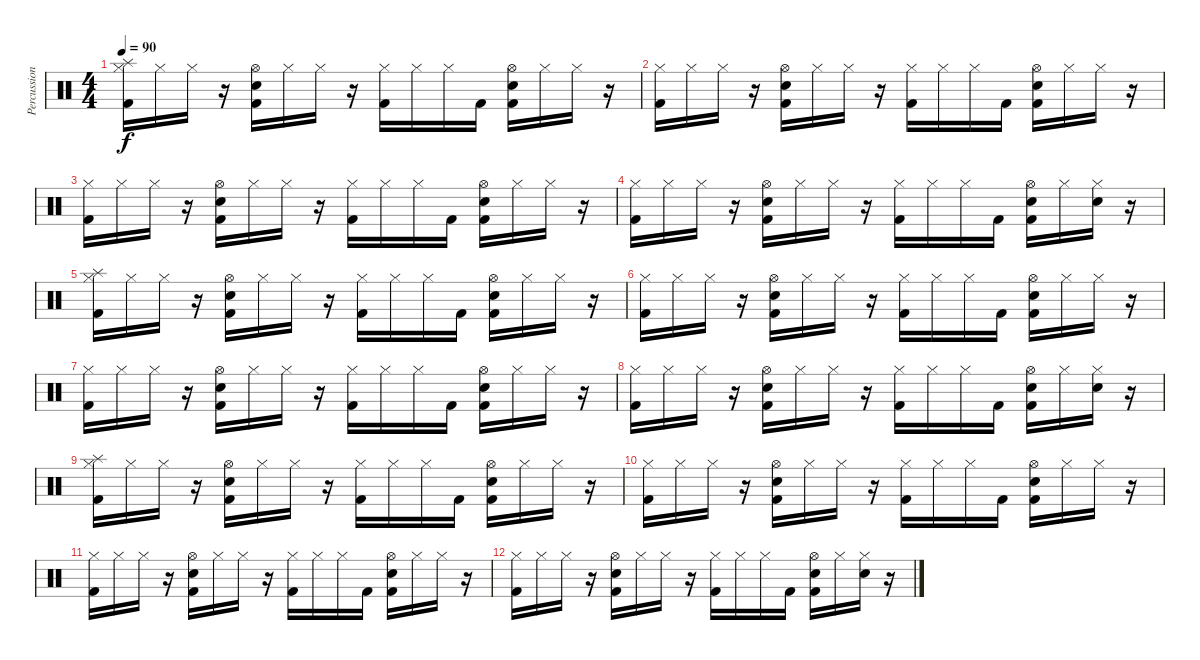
\track ("Percussion" "Percussion") {instrument percussion}
\staff {score}
\articulation defaults
\ts (4 4)
\tempo 90
\clef neutral
\ks c
("Splash (hit)" "Hi-Hat (closed)" "Kick (hit) 2").16{dy f} "Hi-Hat (closed)".16 "Hi-Hat (closed)".16 r.16 ("Kick (hit) 2" "Hi-Hat (open)" "Electric Snare (hit)").16 "Hi-Hat (closed)".16 "Hi-Hat (closed)".16 r.16 ("Hi-Hat (closed)" "Kick (hit) 2").16 "Hi-Hat (closed)".16 "Hi-Hat (closed)".16 "Kick (hit) 2".16 ("Kick (hit) 2" "Hi-Hat (open)" "Electric Snare (hit)").16 "Hi-Hat (closed)".16 "Hi-Hat (closed)".16 r.16 |
("Hi-Hat (closed)" "Kick (hit) 2").16 "Hi-Hat (closed)".16 "Hi-Hat (closed)".16 r.16 ("Kick (hit) 2" "Hi-Hat (open)" "Electric Snare (hit)").16 "Hi-Hat (closed)".16 "Hi-Hat (closed)".16 r.16 ("Hi-Hat (closed)" "Kick (hit) 2").16 "Hi-Hat (closed)".16 "Hi-Hat (closed)".16 "Kick (hit) 2".16 ("Kick (hit) 2" "Hi-Hat (open)" "Electric Snare (hit)").16 "Hi-Hat (closed)".16 "Hi-Hat (closed)".16 r.16 |
("Hi-Hat (closed)" "Kick (hit) 2").16 "Hi-Hat (closed)".16 "Hi-Hat (closed)".16 r.16 ("Kick (hit) 2" "Hi-Hat (open)" "Electric Snare (hit)").16 "Hi-Hat (closed)".16 "Hi-Hat (closed)".16 r.16 ("Hi-Hat (closed)" "Kick (hit) 2").16 "Hi-Hat (closed)".16 "Hi-Hat (closed)".16 "Kick (hit) 2".16 ("Kick (hit) 2" "Hi-Hat (open)" "Electric Snare (hit)").16 "Hi-Hat (closed)".16 "Hi-Hat (closed)".16 r.16 |
("Hi-Hat (closed)" "Kick (hit) 2").16 "Hi-Hat (closed)".16 "Hi-Hat (closed)".16 r.16 ("Kick (hit) 2" "Hi-Hat (open)" "Electric Snare (hit)").16 "Hi-Hat (closed)".16 "Hi-Hat (closed)".16 r.16 ("Hi-Hat (closed)" "Kick (hit) 2").16 "Hi-Hat (closed)".16 "Hi-Hat (closed)".16 "Kick (hit) 2".16 ("Kick (hit) 2" "Hi-Hat (open)" "Electric Snare (hit)").16 "Hi-Hat (closed)".16 ("Hi-Hat (closed)" "Electric Snare (hit)").16 r.16 |
("Splash (hit)" "Hi-Hat (closed)" "Kick (hit) 2").16 "Hi-Hat (closed)".16 "Hi-Hat (closed)".16 r.16 ("Kick (hit) 2" "Hi-Hat (open)" "Electric Snare (hit)").16 "Hi-Hat (closed)".16 "Hi-Hat (closed)".16 r.16 ("Hi-Hat (closed)" "Kick (hit) 2").16 "Hi-Hat (closed)".16 "Hi-Hat (closed)".16 "Kick (hit) 2".16 ("Kick (hit) 2" "Hi-Hat (open)" "Electric Snare (hit)").16 "Hi-Hat (closed)".16 "Hi-Hat (closed)".16 r.16 |
("Hi-Hat (closed)" "Kick (hit) 2").16 "Hi-Hat (closed)".16 "Hi-Hat (closed)".16 r.16 ("Kick (hit) 2" "Hi-Hat (open)" "Electric Snare (hit)").16 "Hi-Hat (closed)".16 "Hi-Hat (closed)".16 r.16 ("Hi-Hat (closed)" "Kick (hit) 2").16 "Hi-Hat (closed)".16 "Hi-Hat (closed)".16 "Kick (hit) 2".16 ("Kick (hit) 2" "Hi-Hat (open)" "Electric Snare (hit)").16 "Hi-Hat (closed)".16 "Hi-Hat (closed)".16 r.16 |
("Hi-Hat (closed)" "Kick (hit) 2").16 "Hi-Hat (closed)".16 "Hi-Hat (closed)".16 r.16 ("Kick (hit) 2" "Hi-Hat (open)" "Electric Snare (hit)").16 "Hi-Hat (closed)".16 "Hi-Hat (closed)".16 r.16 ("Hi-Hat (closed)" "Kick (hit) 2").16 "Hi-Hat (closed)".16 "Hi-Hat (closed)".16 "Kick (hit) 2".16 ("Kick (hit) 2" "Hi-Hat (open)" "Electric Snare (hit)").16 "Hi-Hat (closed)".16 "Hi-Hat (closed)".16 r.16 |
("Hi-Hat (closed)" "Kick (hit) 2").16 "Hi-Hat (closed)".16 "Hi-Hat (closed)".16 r.16 ("Kick (hit) 2" "Hi-Hat (open)" "Electric Snare (hit)").16 "Hi-Hat (closed)".16 "Hi-Hat (closed)".16 r.16 ("Hi-Hat (closed)" "Kick (hit) 2").16 "Hi-Hat (closed)".16 "Hi-Hat (closed)".16 "Kick (hit) 2".16 ("Kick (hit) 2" "Hi-Hat (open)" "Electric Snare (hit)").16 "Hi-Hat (closed)".16 ("Hi-Hat (closed)" "Electric Snare (hit)").16 r.16 |
("Splash (hit)" "Hi-Hat (closed)" "Kick (hit) 2").16 "Hi-Hat (closed)".16 "Hi-Hat (closed)".16 r.16 ("Kick (hit) 2" "Hi-Hat (open)" "Electric Snare (hit)").16 "Hi-Hat (closed)".16 "Hi-Hat (closed)".16 r.16 ("Hi-Hat (closed)" "Kick (hit) 2").16 "Hi-Hat (closed)".16 "Hi-Hat (closed)".16 "Kick (hit) 2".16 ("Kick (hit) 2" "Hi-Hat (open)" "Electric Snare (hit)").16 "Hi-Hat (closed)".16 "Hi-Hat (closed)".16 r.16 |
("Hi-Hat (closed)" "Kick (hit) 2").16 "Hi-Hat (closed)".16 "Hi-Hat (closed)".16 r.16 ("Kick (hit) 2" "Hi-Hat (open)" "Electric Snare (hit)").16 "Hi-Hat (closed)".16 "Hi-Hat (closed)".16 r.16 ("Hi-Hat (closed)" "Kick (hit) 2").16 "Hi-Hat (closed)".16 "Hi-Hat (closed)".16 "Kick (hit) 2".16 ("Kick (hit) 2" "Hi-Hat (open)" "Electric Snare (hit)").16 "Hi-Hat (closed)".16 "Hi-Hat (closed)".16 r.16 |
("Hi-Hat (closed)" "Kick (hit) 2").16 "Hi-Hat (closed)".16 "Hi-Hat (closed)".16 r.16 ("Kick (hit) 2" "Hi-Hat (open)" "Electric Snare (hit)").16 "Hi-Hat (closed)".16 "Hi-Hat (closed)".16 r.16 ("Hi-Hat (closed)" "Kick (hit) 2").16 "Hi-Hat (closed)".16 "Hi-Hat (closed)".16 "Kick (hit) 2".16 ("Kick (hit) 2" "Hi-Hat (open)" "Electric Snare (hit)").16 "Hi-Hat (closed)".16 "Hi-Hat (closed)".16 r.16 |
("Hi-Hat (closed)" "Kick (hit) 2").16 "Hi-Hat (closed)".16 "Hi-Hat (closed)".16 r.16 ("Kick (hit) 2" "Hi-Hat (open)" "Electric Snare (hit)").16 "Hi-Hat (closed)".16 "Hi-Hat (closed)".16 r.16 ("Hi-Hat (closed)" "Kick (hit) 2").16 "Hi-Hat (closed)".16 "Hi-Hat (closed)".16 "Kick (hit) 2".16 ("Kick (hit) 2" "Hi-Hat (open)" "Electric Snare (hit)").16 "Hi-Hat (closed)".16 ("Hi-Hat (closed)" "Electric Snare (hit)").16 r.16
